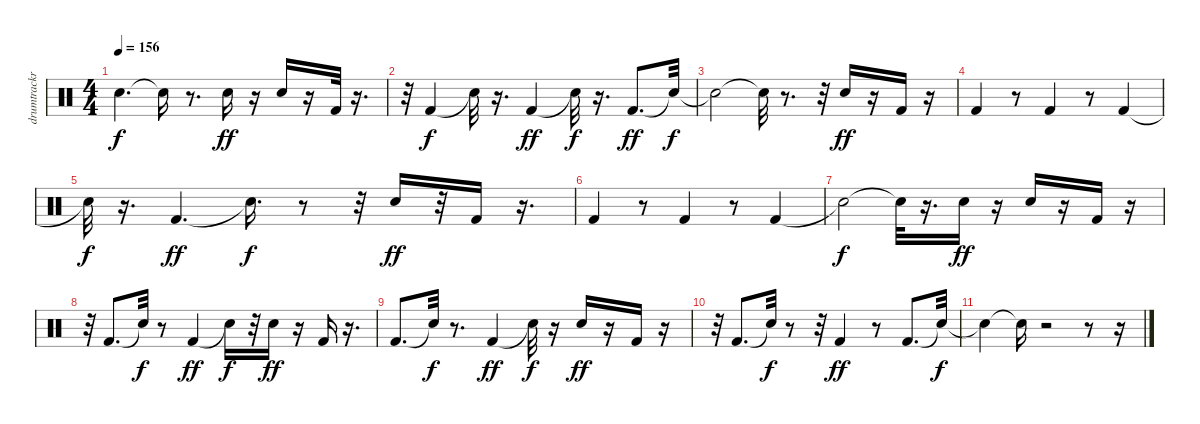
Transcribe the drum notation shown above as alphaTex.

\track ("drumtrackr " "drumtrackr") {instrument percussion}
\staff {score}
\articulation defaults
\ts (4 4)
\tempo 156
\clef neutral
\ks c "Snare (hit)"{t}.4{d dy f} "Snare (hit)"{t}.16
r.8{d} "Snare (hit) 2".16{dy ff} r.16 "Snare (hit) 2".16 r.16 "Kick (hit) 2".32 r.16{d} |
r.32 "Kick (hit) 2".4{dy f} "Snare (hit)"{t}.32 r.16{d} "Kick (hit) 2".4{dy ff} "Snare (hit)"{t}.32{dy f} r.16{d} "Kick (hit) 2".8{d dy ff} "Snare (hit)"{t}.32{dy f} |
"Snare (hit)"{t}.2 "Snare (hit)"{t}.32 r.8{d} r.32 "Snare (hit) 2".16{dy ff} r.16 "Kick (hit) 2".16 r.16 |
"Kick (hit) 2".4 r.8 "Kick (hit) 2".4 r.8 "Kick (hit) 2".4 |
"Snare (hit)"{t}.32{dy f} r.16{d} "Kick (hit) 2".4{d dy ff} "Snare (hit)"{t}.16{d dy f} r.8 r.32 "Snare (hit) 2".16{dy ff} r.32 "Kick (hit) 2".16 r.16{d} |
"Kick (hit) 2".4 r.8 "Kick (hit) 2".4 r.8 "Kick (hit) 2".4 |
"Snare (hit)"{t}.2{dy f} "Snare (hit)"{t}.32 r.16{d} "Snare (hit) 2".16{dy ff} r.16 "Snare (hit) 2".16 r.16 "Kick (hit) 2".16 r.16 |
r.32 "Kick (hit) 2".8{d} "Snare (hit)"{t}.32{dy f} r.8 "Kick (hit) 2".4{dy ff} "Snare (hit)"{t}.16{dy f} r.32 "Snare (hit) 2".16{dy ff} r.16 "Kick (hit) 2".16 r.16{d} |
"Kick (hit) 2".8{d} "Snare (hit)"{t}.32{dy f} r.8{d} "Kick (hit) 2".4{dy ff} "Snare (hit)"{t}.32{dy f} r.16 "Snare (hit) 2".16{dy ff} r.16 "Kick (hit) 2".16 r.16 |
r.32 "Kick (hit) 2".8{d} "Snare (hit)"{t}.32{dy f} r.8 r.32 "Kick (hit) 2".4{dy ff} r.8 "Kick (hit) 2".8{d} "Snare (hit)"{t}.32{dy f} |
"Snare (hit)"{t}.4 "Snare (hit)"{t}.16 r.2 r.8 r.16
